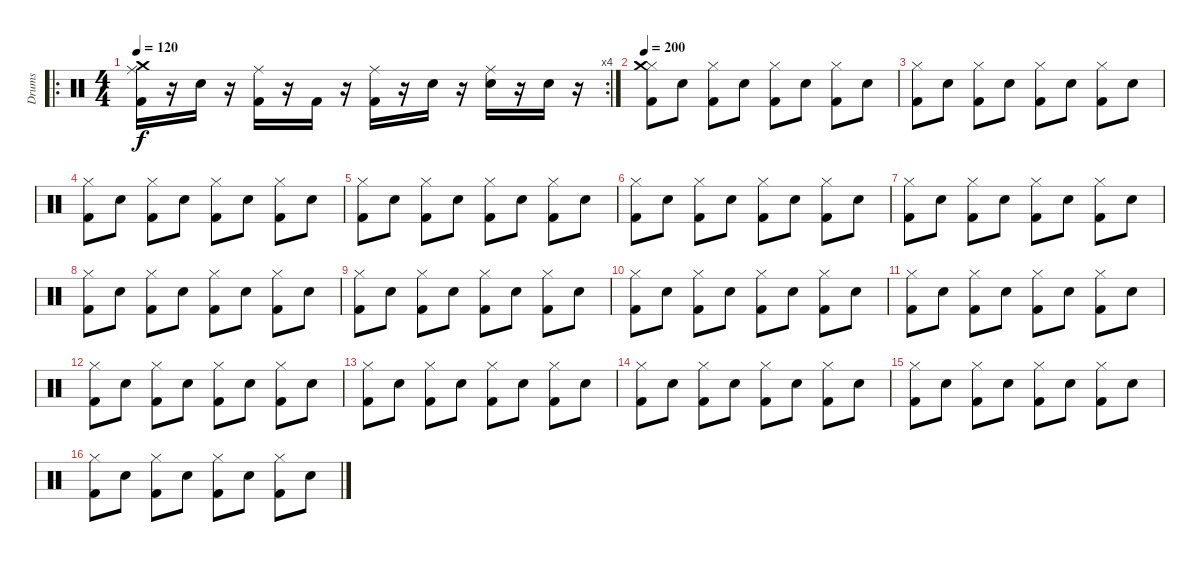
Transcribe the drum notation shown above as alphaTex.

\track ("Drums" "Drums") {instrument percussion}
\staff {score}
\articulation defaults
\ro
\rc 4
\ts (4 4)
\tempo 120
\clef neutral
\ks c
("Kick (hit) 2" "Ride (middle)" "Crash medium (hit)").16{dy f} r.16 "Snare (hit) 2".16 r.16 ("Kick (hit) 2" "Ride (middle)").16 r.16 "Kick (hit) 2".16 r.16 ("Kick (hit) 2" "Ride (middle)").16 r.16 "Snare (hit) 2".16 r.16 ("Snare (hit) 2" "Ride (middle)").16 r.16 "Snare (hit) 2".16 r.16 |
\tempo 200
("Kick (hit) 2" "Hi-Hat (closed)" "Crash medium (hit)").8 "Snare (hit) 2".8 ("Kick (hit) 2" "Hi-Hat (closed)").8 "Snare (hit) 2".8 ("Kick (hit) 2" "Hi-Hat (closed)").8 "Snare (hit) 2".8 ("Kick (hit) 2" "Hi-Hat (closed)").8 "Snare (hit) 2".8 |
("Kick (hit) 2" "Hi-Hat (closed)").8 "Snare (hit) 2".8 ("Kick (hit) 2" "Hi-Hat (closed)").8 "Snare (hit) 2".8 ("Kick (hit) 2" "Hi-Hat (closed)").8 "Snare (hit) 2".8 ("Kick (hit) 2" "Hi-Hat (closed)").8 "Snare (hit) 2".8 |
("Kick (hit) 2" "Hi-Hat (closed)").8 "Snare (hit) 2".8 ("Kick (hit) 2" "Hi-Hat (closed)").8 "Snare (hit) 2".8 ("Kick (hit) 2" "Hi-Hat (closed)").8 "Snare (hit) 2".8 ("Kick (hit) 2" "Hi-Hat (closed)").8 "Snare (hit) 2".8 |
("Kick (hit) 2" "Hi-Hat (closed)").8 "Snare (hit) 2".8 ("Kick (hit) 2" "Hi-Hat (closed)").8 "Snare (hit) 2".8 ("Kick (hit) 2" "Hi-Hat (closed)").8 "Snare (hit) 2".8 ("Kick (hit) 2" "Hi-Hat (closed)").8 "Snare (hit) 2".8 |
("Kick (hit) 2" "Hi-Hat (closed)").8 "Snare (hit) 2".8 ("Kick (hit) 2" "Hi-Hat (closed)").8 "Snare (hit) 2".8 ("Kick (hit) 2" "Hi-Hat (closed)").8 "Snare (hit) 2".8 ("Kick (hit) 2" "Hi-Hat (closed)").8 "Snare (hit) 2".8 |
("Kick (hit) 2" "Hi-Hat (closed)").8 "Snare (hit) 2".8 ("Kick (hit) 2" "Hi-Hat (closed)").8 "Snare (hit) 2".8 ("Kick (hit) 2" "Hi-Hat (closed)").8 "Snare (hit) 2".8 ("Kick (hit) 2" "Hi-Hat (closed)").8 "Snare (hit) 2".8 |
("Kick (hit) 2" "Hi-Hat (closed)").8 "Snare (hit) 2".8 ("Kick (hit) 2" "Hi-Hat (closed)").8 "Snare (hit) 2".8 ("Kick (hit) 2" "Hi-Hat (closed)").8 "Snare (hit) 2".8 ("Kick (hit) 2" "Hi-Hat (closed)").8 "Snare (hit) 2".8 |
("Kick (hit) 2" "Hi-Hat (closed)").8 "Snare (hit) 2".8 ("Kick (hit) 2" "Hi-Hat (closed)").8 "Snare (hit) 2".8 ("Kick (hit) 2" "Hi-Hat (closed)").8 "Snare (hit) 2".8 ("Kick (hit) 2" "Hi-Hat (closed)").8 "Snare (hit) 2".8 |
("Kick (hit) 2" "Hi-Hat (closed)").8 "Snare (hit) 2".8 ("Kick (hit) 2" "Hi-Hat (closed)").8 "Snare (hit) 2".8 ("Kick (hit) 2" "Hi-Hat (closed)").8 "Snare (hit) 2".8 ("Kick (hit) 2" "Hi-Hat (closed)").8 "Snare (hit) 2".8 |
("Kick (hit) 2" "Hi-Hat (closed)").8 "Snare (hit) 2".8 ("Kick (hit) 2" "Hi-Hat (closed)").8 "Snare (hit) 2".8 ("Kick (hit) 2" "Hi-Hat (closed)").8 "Snare (hit) 2".8 ("Kick (hit) 2" "Hi-Hat (closed)").8 "Snare (hit) 2".8 |
("Kick (hit) 2" "Hi-Hat (closed)").8 "Snare (hit) 2".8 ("Kick (hit) 2" "Hi-Hat (closed)").8 "Snare (hit) 2".8 ("Kick (hit) 2" "Hi-Hat (closed)").8 "Snare (hit) 2".8 ("Kick (hit) 2" "Hi-Hat (closed)").8 "Snare (hit) 2".8 |
("Kick (hit) 2" "Hi-Hat (closed)").8 "Snare (hit) 2".8 ("Kick (hit) 2" "Hi-Hat (closed)").8 "Snare (hit) 2".8 ("Kick (hit) 2" "Hi-Hat (closed)").8 "Snare (hit) 2".8 ("Kick (hit) 2" "Hi-Hat (closed)").8 "Snare (hit) 2".8 |
("Kick (hit) 2" "Hi-Hat (closed)").8 "Snare (hit) 2".8 ("Kick (hit) 2" "Hi-Hat (closed)").8 "Snare (hit) 2".8 ("Kick (hit) 2" "Hi-Hat (closed)").8 "Snare (hit) 2".8 ("Kick (hit) 2" "Hi-Hat (closed)").8 "Snare (hit) 2".8 |
("Kick (hit) 2" "Hi-Hat (closed)").8 "Snare (hit) 2".8 ("Kick (hit) 2" "Hi-Hat (closed)").8 "Snare (hit) 2".8 ("Kick (hit) 2" "Hi-Hat (closed)").8 "Snare (hit) 2".8 ("Kick (hit) 2" "Hi-Hat (closed)").8 "Snare (hit) 2".8 |
("Kick (hit) 2" "Hi-Hat (closed)").8 "Snare (hit) 2".8 ("Kick (hit) 2" "Hi-Hat (closed)").8 "Snare (hit) 2".8 ("Kick (hit) 2" "Hi-Hat (closed)").8 "Snare (hit) 2".8 ("Kick (hit) 2" "Hi-Hat (closed)").8 "Snare (hit) 2".8
